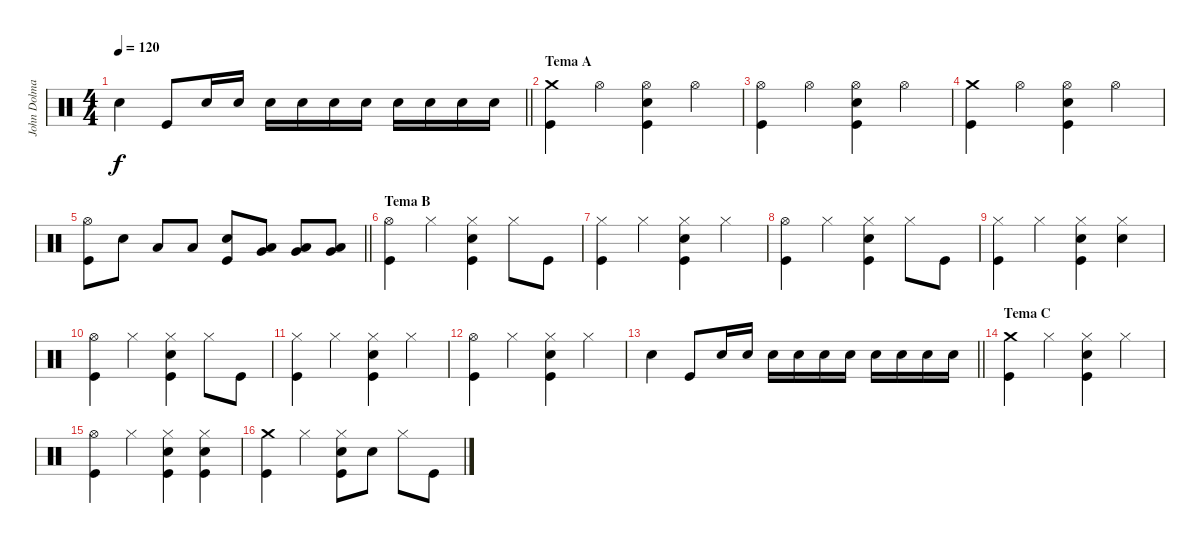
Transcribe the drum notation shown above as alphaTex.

\track ("John Dolmayan (Bateria)" "John Dolma") {instrument percussion}
\staff {score}
\articulation defaults
\ts (4 4)
\tempo 120
\clef neutral
\barLineRight lightlight
\ks c "Snare (hit) 2".4{dy f} "Kick (hit)".8 "Snare (hit) 2".16 "Snare (hit) 2".16 "Snare (hit) 2".16 "Snare (hit) 2".16 "Snare (hit) 2".16 "Snare (hit) 2".16 "Snare (hit) 2".16 "Snare (hit) 2".16 "Snare (hit) 2".16 "Snare (hit) 2".16
|
\section ("" "Tema A")
("Crash medium (hit)" "Kick (hit)").4 "Hi-Hat (open)".4 ("Hi-Hat (open)" "Snare (hit) 2" "Kick (hit)").4 "Hi-Hat (open)".4 |
("Hi-Hat (open)" "Kick (hit)").4 "Hi-Hat (open)".4 ("Hi-Hat (open)" "Snare (hit) 2" "Kick (hit)").4 "Hi-Hat (open)".4 |
("Crash medium (hit)" "Kick (hit)").4 "Hi-Hat (open)".4 ("Hi-Hat (open)" "Snare (hit) 2" "Kick (hit)").4 "Hi-Hat (open)".4 |
\barLineRight lightlight
("Hi-Hat (open)" "Kick (hit)").8 "Snare (hit) 2".8 "Low Floor Tom (hit)".8 "Low Floor Tom (hit)".8 ("Snare (hit) 2" "Kick (hit)").8 ("Very Low Tom (hit)" "Low Floor Tom (hit)").8 ("Very Low Tom (hit)" "Low Floor Tom (hit)").8 ("Very Low Tom (hit)" "Low Floor Tom (hit)").8 |
\section ("" "Tema B")
("Hi-Hat (open)" "Kick (hit)").4 "Hi-Hat (closed)".4 ("Hi-Hat (closed)" "Snare (hit) 2" "Kick (hit)").4 "Hi-Hat (closed)".8 "Kick (hit)".8 |
("Hi-Hat (closed)" "Kick (hit)").4 "Hi-Hat (closed)".4 ("Hi-Hat (closed)" "Snare (hit) 2" "Kick (hit)").4 "Hi-Hat (closed)".4 |
("Hi-Hat (open)" "Kick (hit)").4 "Hi-Hat (closed)".4 ("Hi-Hat (closed)" "Snare (hit) 2" "Kick (hit)").4 "Hi-Hat (closed)".8 "Kick (hit)".8 |
("Hi-Hat (closed)" "Kick (hit)").4 "Hi-Hat (closed)".4 ("Hi-Hat (closed)" "Snare (hit) 2" "Kick (hit)").4 ("Hi-Hat (closed)" "Snare (hit) 2").4 |
("Hi-Hat (open)" "Kick (hit)").4 "Hi-Hat (closed)".4 ("Hi-Hat (closed)" "Snare (hit) 2" "Kick (hit)").4 "Hi-Hat (closed)".8 "Kick (hit)".8 |
("Hi-Hat (closed)" "Kick (hit)").4 "Hi-Hat (closed)".4 ("Hi-Hat (closed)" "Snare (hit) 2" "Kick (hit)").4 "Hi-Hat (closed)".4 |
("Hi-Hat (open)" "Kick (hit)").4 "Hi-Hat (closed)".4 ("Hi-Hat (closed)" "Snare (hit) 2" "Kick (hit)").4 "Hi-Hat (closed)".4 |
\barLineRight lightlight "Snare (hit) 2".4 "Kick (hit)".8 "Snare (hit) 2".16 "Snare (hit) 2".16 "Snare (hit) 2".16 "Snare (hit) 2".16 "Snare (hit) 2".16 "Snare (hit) 2".16 "Snare (hit) 2".16 "Snare (hit) 2".16 "Snare (hit) 2".16 "Snare (hit) 2".16
|
\section ("" "Tema C")
("Crash medium (hit)" "Kick (hit)").4 "Hi-Hat (closed)".4 ("Hi-Hat (closed)" "Snare (hit) 2" "Kick (hit)").4 "Hi-Hat (closed)".4 |
("Hi-Hat (open)" "Kick (hit)").4 "Hi-Hat (closed)".4 ("Hi-Hat (closed)" "Snare (hit) 2" "Kick (hit)").4 ("Hi-Hat (closed)" "Snare (hit) 2" "Kick (hit)").4 |
("Crash medium (hit)" "Kick (hit)").4 "Hi-Hat (closed)".4 ("Hi-Hat (closed)" "Snare (hit) 2" "Kick (hit)").8 "Snare (hit) 2".8 "Hi-Hat (closed)".8 "Kick (hit)".8
